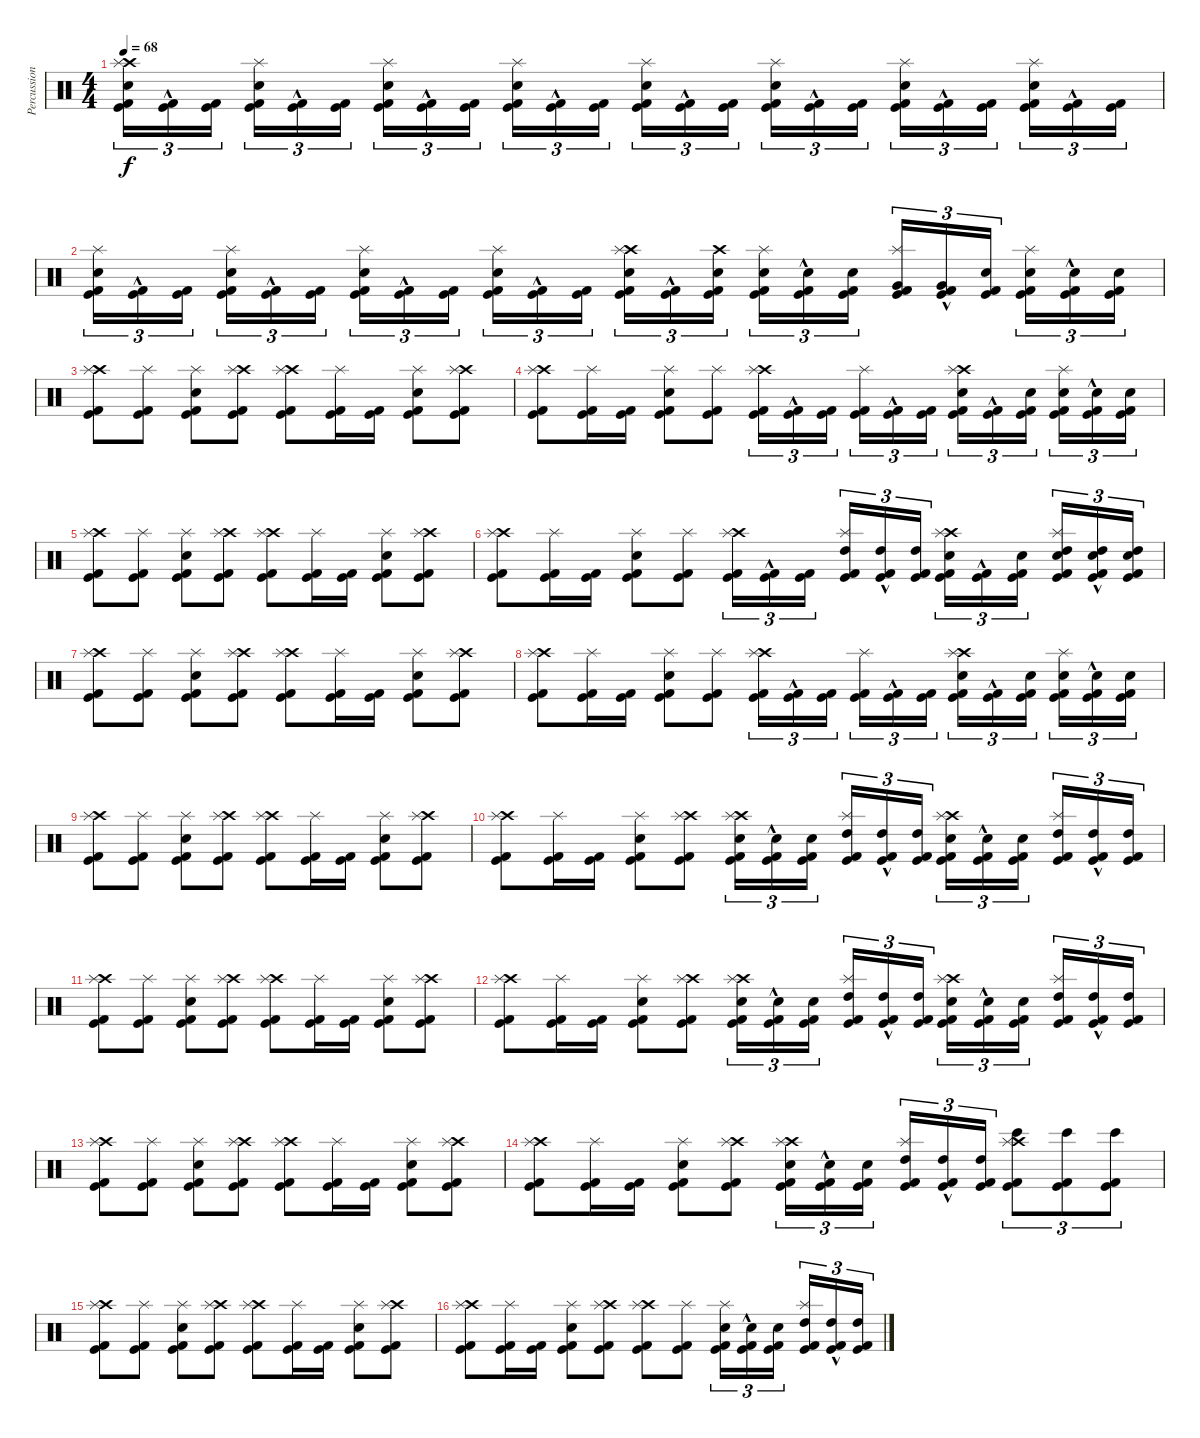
\track ("Percussion" "Percussion") {instrument percussion}
\staff {score}
\articulation defaults
\ts (4 4)
\tempo 68
\clef neutral
\ks c
("Kick (hit)" "Kick (hit) 2" "Snare (hit) 2" "Crash high (hit)" "Splash (hit)").16{tu (3 2) dy f} ("Kick (hit)"{hac} "Kick (hit) 2"{hac}).16{tu (3 2)} ("Kick (hit)" "Kick (hit) 2").16{tu (3 2)} ("Kick (hit)" "Kick (hit) 2" "Snare (hit) 2" "Splash (hit)").16{tu (3 2)} ("Kick (hit)"{hac} "Kick (hit) 2"{hac}).16{tu (3 2)} ("Kick (hit)" "Kick (hit) 2").16{tu (3 2)} ("Kick (hit)" "Kick (hit) 2" "Snare (hit) 2" "Splash (hit)").16{tu (3 2)} ("Kick (hit)"{hac} "Kick (hit) 2"{hac}).16{tu (3 2)} ("Kick (hit)" "Kick (hit) 2").16{tu (3 2)} ("Kick (hit)" "Kick (hit) 2" "Snare (hit) 2" "Splash (hit)").16{tu (3 2)} ("Kick (hit)"{hac} "Kick (hit) 2"{hac}).16{tu (3 2)} ("Kick (hit)" "Kick (hit) 2").16{tu (3 2)} ("Kick (hit)" "Kick (hit) 2" "Snare (hit) 2" "Splash (hit)").16{tu (3 2)} ("Kick (hit)"{hac} "Kick (hit) 2"{hac}).16{tu (3 2)} ("Kick (hit)" "Kick (hit) 2").16{tu (3 2)} ("Kick (hit)" "Kick (hit) 2" "Snare (hit) 2" "Splash (hit)").16{tu (3 2)} ("Kick (hit)"{hac} "Kick (hit) 2"{hac}).16{tu (3 2)} ("Kick (hit)" "Kick (hit) 2").16{tu (3 2)} ("Kick (hit)" "Kick (hit) 2" "Snare (hit) 2" "Splash (hit)").16{tu (3 2)} ("Kick (hit)"{hac} "Kick (hit) 2"{hac}).16{tu (3 2)} ("Kick (hit)" "Kick (hit) 2").16{tu (3 2)} ("Kick (hit)" "Kick (hit) 2" "Snare (hit) 2" "Splash (hit)").16{tu (3 2)} ("Kick (hit)"{hac} "Kick (hit) 2"{hac}).16{tu (3 2)} ("Kick (hit)" "Kick (hit) 2").16{tu (3 2)} |
("Kick (hit)" "Kick (hit) 2" "Snare (hit) 2" "Splash (hit)").16{tu (3 2)} ("Kick (hit)"{hac} "Kick (hit) 2"{hac}).16{tu (3 2)} ("Kick (hit)" "Kick (hit) 2").16{tu (3 2)} ("Kick (hit)" "Kick (hit) 2" "Snare (hit) 2" "Splash (hit)").16{tu (3 2)} ("Kick (hit)"{hac} "Kick (hit) 2"{hac}).16{tu (3 2)} ("Kick (hit)" "Kick (hit) 2").16{tu (3 2)} ("Kick (hit)" "Kick (hit) 2" "Snare (hit) 2" "Splash (hit)").16{tu (3 2)} ("Kick (hit)"{hac} "Kick (hit) 2"{hac}).16{tu (3 2)} ("Kick (hit)" "Kick (hit) 2").16{tu (3 2)} ("Kick (hit)" "Kick (hit) 2" "Snare (hit) 2" "Splash (hit)").16{tu (3 2)} ("Kick (hit)"{hac} "Kick (hit) 2"{hac}).16{tu (3 2)} ("Kick (hit)" "Kick (hit) 2").16{tu (3 2)} ("Kick (hit)" "Kick (hit) 2" "Snare (hit) 2" "Crash high (hit)" "Splash (hit)").16{tu (3 2)} ("Kick (hit)"{hac} "Kick (hit) 2"{hac}).16{tu (3 2)} ("Kick (hit)" "Kick (hit) 2" "Snare (hit) 2" "Crash high (hit)").16{tu (3 2)} ("Kick (hit)" "Kick (hit) 2" "Snare (hit) 2" "Splash (hit)").16{tu (3 2)} ("Kick (hit)"{hac} "Kick (hit) 2"{hac} "Snare (hit) 2"{hac}).16{tu (3 2)} ("Kick (hit)" "Kick (hit) 2" "Snare (hit) 2").16{tu (3 2)} ("Kick (hit)" "Kick (hit) 2" "Very Low Tom (hit)" "Splash (hit)").16{tu (3 2)} ("Kick (hit)"{hac} "Kick (hit) 2"{hac} "Very Low Tom (hit)"{hac}).16{tu (3 2)} ("Kick (hit)" "Kick (hit) 2" "Snare (hit) 2").16{tu (3 2)} ("Kick (hit)" "Kick (hit) 2" "Snare (hit) 2" "Splash (hit)").16{tu (3 2)} ("Kick (hit)"{hac} "Kick (hit) 2"{hac} "Snare (hit) 2"{hac}).16{tu (3 2)} ("Kick (hit)" "Kick (hit) 2" "Snare (hit) 2").16{tu (3 2)} |
\section ("" "")
("Kick (hit)" "Kick (hit) 2" "Crash high (hit)" "Splash (hit)").8 ("Kick (hit)" "Kick (hit) 2" "Splash (hit)").8 ("Kick (hit)" "Kick (hit) 2" "Snare (hit) 2" "Splash (hit)").8 ("Kick (hit)" "Kick (hit) 2" "Crash high (hit)" "Splash (hit)").8 ("Kick (hit)" "Kick (hit) 2" "Crash high (hit)" "Splash (hit)").8 ("Kick (hit)" "Kick (hit) 2" "Splash (hit)").16 ("Kick (hit)" "Kick (hit) 2").16 ("Kick (hit)" "Kick (hit) 2" "Snare (hit) 2" "Splash (hit)").8 ("Kick (hit)" "Kick (hit) 2" "Crash high (hit)" "Splash (hit)").8 |
("Kick (hit)" "Kick (hit) 2" "Crash high (hit)" "Splash (hit)").8 ("Kick (hit)" "Kick (hit) 2" "Splash (hit)").16 ("Kick (hit)" "Kick (hit) 2").16 ("Kick (hit)" "Kick (hit) 2" "Snare (hit) 2" "Splash (hit)").8 ("Kick (hit)" "Kick (hit) 2" "Splash (hit)").8 ("Kick (hit)" "Kick (hit) 2" "Crash high (hit)" "Splash (hit)").16{tu (3 2)} ("Kick (hit)"{hac} "Kick (hit) 2"{hac}).16{tu (3 2)} ("Kick (hit)" "Kick (hit) 2").16{tu (3 2)} ("Kick (hit)" "Kick (hit) 2" "Splash (hit)").16{tu (3 2)} ("Kick (hit)"{hac} "Kick (hit) 2"{hac}).16{tu (3 2)} ("Kick (hit)" "Kick (hit) 2").16{tu (3 2)} ("Kick (hit)" "Kick (hit) 2" "Snare (hit) 2" "Crash high (hit)" "Splash (hit)").16{tu (3 2)} ("Kick (hit)"{hac} "Kick (hit) 2"{hac}).16{tu (3 2)} ("Kick (hit)" "Kick (hit) 2" "Snare (hit) 2").16{tu (3 2)} ("Kick (hit)" "Kick (hit) 2" "Snare (hit) 2" "Splash (hit)").16{tu (3 2)} ("Kick (hit)"{hac} "Kick (hit) 2"{hac} "Snare (hit) 2"{hac}).16{tu (3 2)} ("Kick (hit)" "Kick (hit) 2" "Snare (hit) 2").16{tu (3 2)} |
("Kick (hit)" "Kick (hit) 2" "Crash high (hit)" "Splash (hit)").8 ("Kick (hit)" "Kick (hit) 2" "Splash (hit)").8 ("Kick (hit)" "Kick (hit) 2" "Snare (hit) 2" "Splash (hit)").8 ("Kick (hit)" "Kick (hit) 2" "Crash high (hit)" "Splash (hit)").8 ("Kick (hit)" "Kick (hit) 2" "Crash high (hit)" "Splash (hit)").8 ("Kick (hit)" "Kick (hit) 2" "Splash (hit)").16 ("Kick (hit)" "Kick (hit) 2").16 ("Kick (hit)" "Kick (hit) 2" "Snare (hit) 2" "Splash (hit)").8 ("Kick (hit)" "Kick (hit) 2" "Crash high (hit)" "Splash (hit)").8 |
("Kick (hit)" "Kick (hit) 2" "Crash high (hit)" "Splash (hit)").8 ("Kick (hit)" "Kick (hit) 2" "Splash (hit)").16 ("Kick (hit)" "Kick (hit) 2").16 ("Kick (hit)" "Kick (hit) 2" "Snare (hit) 2" "Splash (hit)").8 ("Kick (hit)" "Kick (hit) 2" "Splash (hit)").8 ("Kick (hit)" "Kick (hit) 2" "Crash high (hit)" "Splash (hit)").16{tu (3 2)} ("Kick (hit)"{hac} "Kick (hit) 2"{hac}).16{tu (3 2)} ("Kick (hit)" "Kick (hit) 2").16{tu (3 2)} ("Kick (hit)" "Kick (hit) 2" "High Tom (hit)" "Splash (hit)").16{tu (3 2)} ("Kick (hit)"{hac} "Kick (hit) 2"{hac} "High Tom (hit)"{hac}).16{tu (3 2)} ("Kick (hit)" "Kick (hit) 2" "High Tom (hit)").16{tu (3 2)} ("Kick (hit)" "Kick (hit) 2" "Snare (hit) 2" "Crash high (hit)" "Splash (hit)").16{tu (3 2)} ("Kick (hit)"{hac} "Kick (hit) 2"{hac}).16{tu (3 2)} ("Kick (hit)" "Kick (hit) 2" "Snare (hit) 2").16{tu (3 2)} ("Kick (hit)" "Kick (hit) 2" "Snare (hit) 2" "High Tom (hit)" "Splash (hit)").16{tu (3 2)} ("Kick (hit)"{hac} "Kick (hit) 2"{hac} "Snare (hit) 2"{hac} "High Tom (hit)"{hac}).16{tu (3 2)} ("Kick (hit)" "Kick (hit) 2" "Snare (hit) 2" "High Tom (hit)").16{tu (3 2)} |
\section ("" "")
("Kick (hit)" "Kick (hit) 2" "Crash high (hit)" "Splash (hit)").8 ("Kick (hit)" "Kick (hit) 2" "Splash (hit)").8 ("Kick (hit)" "Kick (hit) 2" "Snare (hit) 2" "Splash (hit)").8 ("Kick (hit)" "Kick (hit) 2" "Crash high (hit)" "Splash (hit)").8 ("Kick (hit)" "Kick (hit) 2" "Crash high (hit)" "Splash (hit)").8 ("Kick (hit)" "Kick (hit) 2" "Splash (hit)").16 ("Kick (hit)" "Kick (hit) 2").16 ("Kick (hit)" "Kick (hit) 2" "Snare (hit) 2" "Splash (hit)").8 ("Kick (hit)" "Kick (hit) 2" "Crash high (hit)" "Splash (hit)").8 |
("Kick (hit)" "Kick (hit) 2" "Crash high (hit)" "Splash (hit)").8 ("Kick (hit)" "Kick (hit) 2" "Splash (hit)").16 ("Kick (hit)" "Kick (hit) 2").16 ("Kick (hit)" "Kick (hit) 2" "Snare (hit) 2" "Splash (hit)").8 ("Kick (hit)" "Kick (hit) 2" "Splash (hit)").8 ("Kick (hit)" "Kick (hit) 2" "Crash high (hit)" "Splash (hit)").16{tu (3 2)} ("Kick (hit)"{hac} "Kick (hit) 2"{hac}).16{tu (3 2)} ("Kick (hit)" "Kick (hit) 2").16{tu (3 2)} ("Kick (hit)" "Kick (hit) 2" "Splash (hit)").16{tu (3 2)} ("Kick (hit)"{hac} "Kick (hit) 2"{hac}).16{tu (3 2)} ("Kick (hit)" "Kick (hit) 2").16{tu (3 2)} ("Kick (hit)" "Kick (hit) 2" "Snare (hit) 2" "Crash high (hit)" "Splash (hit)").16{tu (3 2)} ("Kick (hit)"{hac} "Kick (hit) 2"{hac}).16{tu (3 2)} ("Kick (hit)" "Kick (hit) 2" "Snare (hit) 2").16{tu (3 2)} ("Kick (hit)" "Kick (hit) 2" "Snare (hit) 2" "Splash (hit)").16{tu (3 2)} ("Kick (hit)"{hac} "Kick (hit) 2"{hac} "Snare (hit) 2"{hac}).16{tu (3 2)} ("Kick (hit)" "Kick (hit) 2" "Snare (hit) 2").16{tu (3 2)} |
("Kick (hit)" "Kick (hit) 2" "Crash high (hit)" "Splash (hit)").8 ("Kick (hit)" "Kick (hit) 2" "Splash (hit)").8 ("Kick (hit)" "Kick (hit) 2" "Snare (hit) 2" "Splash (hit)").8 ("Kick (hit)" "Kick (hit) 2" "Crash high (hit)" "Splash (hit)").8 ("Kick (hit)" "Kick (hit) 2" "Crash high (hit)" "Splash (hit)").8 ("Kick (hit)" "Kick (hit) 2" "Splash (hit)").16 ("Kick (hit)" "Kick (hit) 2").16 ("Kick (hit)" "Kick (hit) 2" "Snare (hit) 2" "Splash (hit)").8 ("Kick (hit)" "Kick (hit) 2" "Crash high (hit)" "Splash (hit)").8 |
("Kick (hit)" "Kick (hit) 2" "Crash high (hit)" "Splash (hit)").8 ("Kick (hit)" "Kick (hit) 2" "Splash (hit)").16 ("Kick (hit)" "Kick (hit) 2").16 ("Kick (hit)" "Kick (hit) 2" "Snare (hit) 2" "Splash (hit)").8 ("Kick (hit)" "Kick (hit) 2" "Crash high (hit)" "Splash (hit)").8 ("Kick (hit)" "Kick (hit) 2" "Snare (hit) 2" "Crash high (hit)" "Splash (hit)").16{tu (3 2)} ("Kick (hit)"{hac} "Kick (hit) 2"{hac} "Snare (hit) 2"{hac}).16{tu (3 2)} ("Kick (hit)" "Kick (hit) 2" "Snare (hit) 2").16{tu (3 2)} ("Kick (hit)" "Kick (hit) 2" "High Tom (hit)" "Splash (hit)").16{tu (3 2)} ("Kick (hit)"{hac} "Kick (hit) 2"{hac} "High Tom (hit)"{hac}).16{tu (3 2)} ("Kick (hit)" "Kick (hit) 2" "High Tom (hit)").16{tu (3 2)} ("Kick (hit)" "Kick (hit) 2" "Snare (hit) 2" "Crash high (hit)" "Splash (hit)").16{tu (3 2)} ("Kick (hit)"{hac} "Kick (hit) 2"{hac} "Snare (hit) 2"{hac}).16{tu (3 2)} ("Kick (hit)" "Kick (hit) 2" "Snare (hit) 2").16{tu (3 2)} ("Kick (hit)" "Kick (hit) 2" "High Tom (hit)" "Splash (hit)").16{tu (3 2)} ("Kick (hit)"{hac} "Kick (hit) 2"{hac} "High Tom (hit)"{hac}).16{tu (3 2)} ("Kick (hit)" "Kick (hit) 2" "High Tom (hit)").16{tu (3 2)} |
("Kick (hit)" "Kick (hit) 2" "Crash high (hit)" "Splash (hit)").8 ("Kick (hit)" "Kick (hit) 2" "Splash (hit)").8 ("Kick (hit)" "Kick (hit) 2" "Snare (hit) 2" "Splash (hit)").8 ("Kick (hit)" "Kick (hit) 2" "Crash high (hit)" "Splash (hit)").8 ("Kick (hit)" "Kick (hit) 2" "Crash high (hit)" "Splash (hit)").8 ("Kick (hit)" "Kick (hit) 2" "Splash (hit)").16 ("Kick (hit)" "Kick (hit) 2").16 ("Kick (hit)" "Kick (hit) 2" "Snare (hit) 2" "Splash (hit)").8 ("Kick (hit)" "Kick (hit) 2" "Crash high (hit)" "Splash (hit)").8 |
("Kick (hit)" "Kick (hit) 2" "Crash high (hit)" "Splash (hit)").8 ("Kick (hit)" "Kick (hit) 2" "Splash (hit)").16 ("Kick (hit)" "Kick (hit) 2").16 ("Kick (hit)" "Kick (hit) 2" "Snare (hit) 2" "Splash (hit)").8 ("Kick (hit)" "Kick (hit) 2" "Crash high (hit)" "Splash (hit)").8 ("Kick (hit)" "Kick (hit) 2" "Snare (hit) 2" "Crash high (hit)" "Splash (hit)").16{tu (3 2)} ("Kick (hit)"{hac} "Kick (hit) 2"{hac} "Snare (hit) 2"{hac}).16{tu (3 2)} ("Kick (hit)" "Kick (hit) 2" "Snare (hit) 2").16{tu (3 2)} ("Kick (hit)" "Kick (hit) 2" "High Tom (hit)" "Splash (hit)").16{tu (3 2)} ("Kick (hit)"{hac} "Kick (hit) 2"{hac} "High Tom (hit)"{hac}).16{tu (3 2)} ("Kick (hit)" "Kick (hit) 2" "High Tom (hit)").16{tu (3 2)} ("Kick (hit)" "Kick (hit) 2" "Snare (hit) 2" "Crash high (hit)" "Splash (hit)").16{tu (3 2)} ("Kick (hit)"{hac} "Kick (hit) 2"{hac} "Snare (hit) 2"{hac}).16{tu (3 2)} ("Kick (hit)" "Kick (hit) 2" "Snare (hit) 2").16{tu (3 2)} ("Kick (hit)" "Kick (hit) 2" "High Tom (hit)" "Splash (hit)").16{tu (3 2)} ("Kick (hit)"{hac} "Kick (hit) 2"{hac} "High Tom (hit)"{hac}).16{tu (3 2)} ("Kick (hit)" "Kick (hit) 2" "High Tom (hit)").16{tu (3 2)} |
("Kick (hit)" "Kick (hit) 2" "Crash high (hit)" "Splash (hit)").8 ("Kick (hit)" "Kick (hit) 2" "Splash (hit)").8 ("Kick (hit)" "Kick (hit) 2" "Snare (hit) 2" "Splash (hit)").8 ("Kick (hit)" "Kick (hit) 2" "Crash high (hit)" "Splash (hit)").8 ("Kick (hit)" "Kick (hit) 2" "Crash high (hit)" "Splash (hit)").8 ("Kick (hit)" "Kick (hit) 2" "Splash (hit)").16 ("Kick (hit)" "Kick (hit) 2").16 ("Kick (hit)" "Kick (hit) 2" "Snare (hit) 2" "Splash (hit)").8 ("Kick (hit)" "Kick (hit) 2" "Crash high (hit)" "Splash (hit)").8 |
("Kick (hit)" "Kick (hit) 2" "Crash high (hit)" "Splash (hit)").8 ("Kick (hit)" "Kick (hit) 2" "Splash (hit)").16 ("Kick (hit)" "Kick (hit) 2").16 ("Kick (hit)" "Kick (hit) 2" "Snare (hit) 2" "Splash (hit)").8 ("Kick (hit)" "Kick (hit) 2" "Crash high (hit)" "Splash (hit)").8 ("Kick (hit)" "Kick (hit) 2" "Snare (hit) 2" "Crash high (hit)" "Splash (hit)").16{tu (3 2)} ("Kick (hit)"{hac} "Kick (hit) 2"{hac} "Snare (hit) 2"{hac}).16{tu (3 2)} ("Kick (hit)" "Kick (hit) 2" "Snare (hit) 2").16{tu (3 2)} ("Kick (hit)" "Kick (hit) 2" "High Tom (hit)" "Splash (hit)").16{tu (3 2)} ("Kick (hit)"{hac} "Kick (hit) 2"{hac} "High Tom (hit)"{hac}).16{tu (3 2)} ("Kick (hit)" "Kick (hit) 2" "High Tom (hit)").16{tu (3 2)} ("Bongo High (hit)" "Kick (hit)" "Kick (hit) 2" "Crash high (hit)" "Splash (hit)").8{tu (3 2)} ("Bongo High (hit)" "Kick (hit)" "Kick (hit) 2").8{tu (3 2)} ("Bongo High (hit)" "Kick (hit)" "Kick (hit) 2").8{tu (3 2)} |
("Kick (hit)" "Kick (hit) 2" "Crash high (hit)" "Splash (hit)").8 ("Kick (hit)" "Kick (hit) 2" "Splash (hit)").8 ("Kick (hit)" "Kick (hit) 2" "Snare (hit) 2" "Splash (hit)").8 ("Kick (hit)" "Kick (hit) 2" "Crash high (hit)" "Splash (hit)").8 ("Kick (hit)" "Kick (hit) 2" "Crash high (hit)" "Splash (hit)").8 ("Kick (hit)" "Kick (hit) 2" "Splash (hit)").16 ("Kick (hit)" "Kick (hit) 2").16 ("Kick (hit)" "Kick (hit) 2" "Snare (hit) 2" "Splash (hit)").8 ("Kick (hit)" "Kick (hit) 2" "Crash high (hit)" "Splash (hit)").8 |
("Kick (hit)" "Kick (hit) 2" "Crash high (hit)" "Splash (hit)").8 ("Kick (hit)" "Kick (hit) 2" "Splash (hit)").16 ("Kick (hit)" "Kick (hit) 2").16 ("Kick (hit)" "Kick (hit) 2" "Snare (hit) 2" "Splash (hit)").8 ("Kick (hit)" "Kick (hit) 2" "Crash high (hit)" "Splash (hit)").8 ("Kick (hit)" "Kick (hit) 2" "Crash high (hit)" "Splash (hit)").8 ("Kick (hit)" "Kick (hit) 2" "Splash (hit)").8 ("Kick (hit)" "Kick (hit) 2" "Snare (hit) 2" "Splash (hit)").16{tu (3 2)} ("Kick (hit)"{hac} "Kick (hit) 2"{hac} "Snare (hit) 2"{hac}).16{tu (3 2)} ("Kick (hit)" "Kick (hit) 2" "Snare (hit) 2").16{tu (3 2)} ("Kick (hit)" "Kick (hit) 2" "High Tom (hit)" "Splash (hit)").16{tu (3 2)} ("Kick (hit)"{hac} "Kick (hit) 2"{hac} "High Tom (hit)"{hac}).16{tu (3 2)} ("Kick (hit)" "Kick (hit) 2" "High Tom (hit)").16{tu (3 2)}
